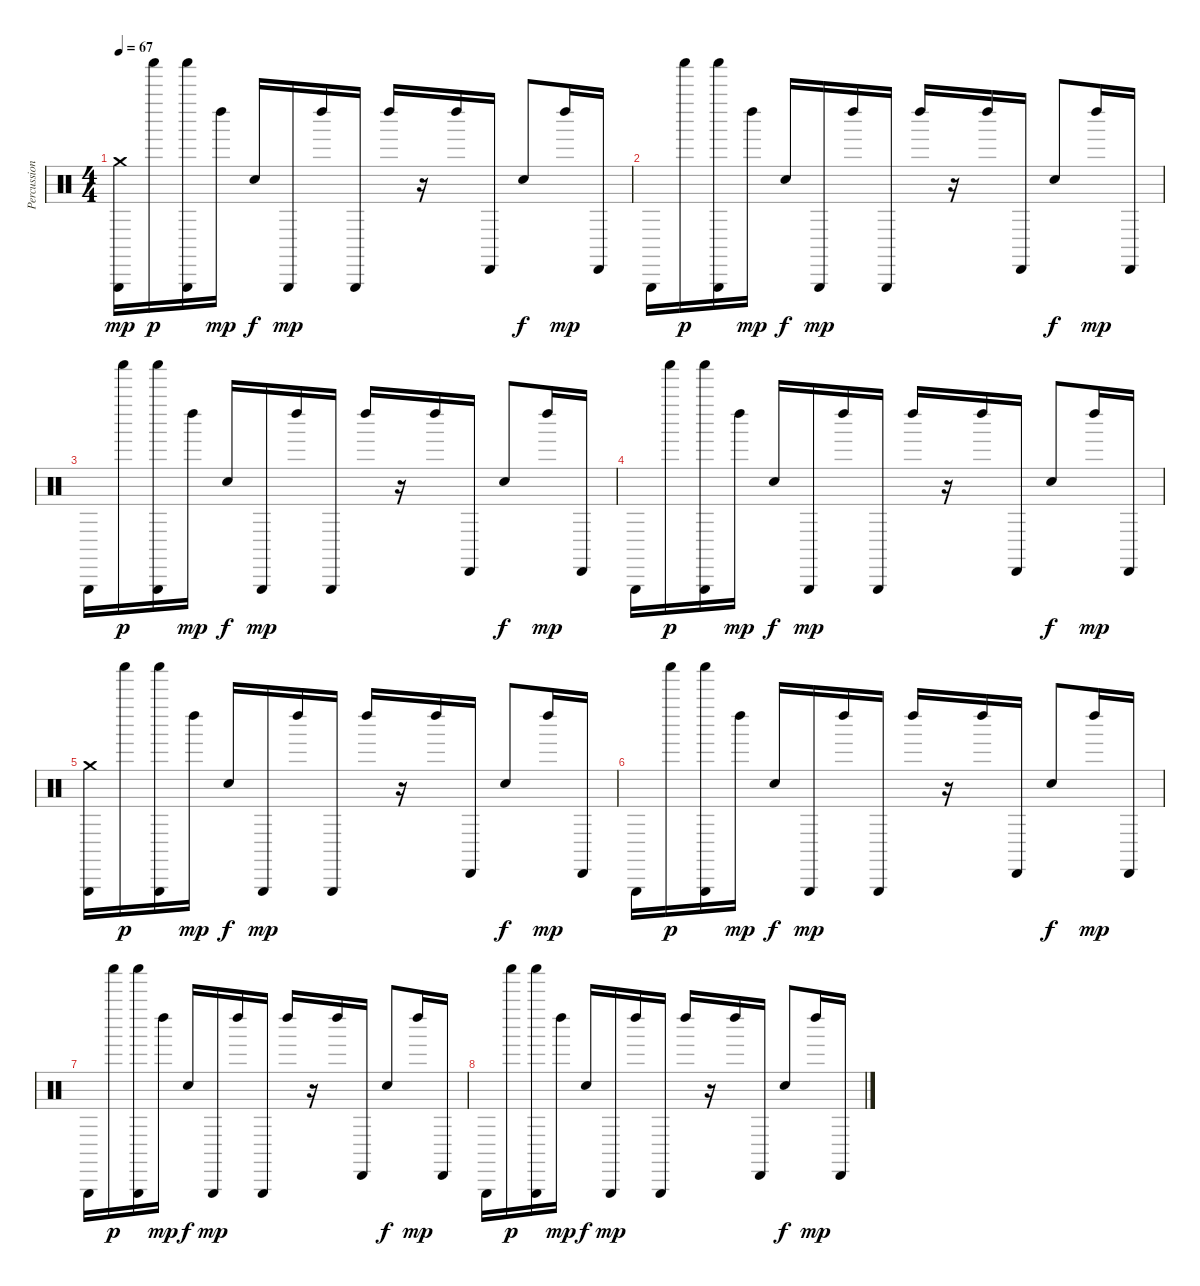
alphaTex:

\track ("Percussion" "Percussion") {instrument percussion}
\staff {score}
\articulation defaults
\ts (4 4)
\tempo 67
\clef neutral
\ks c
("Triangle (hit)" "Crash medium (hit)").16{dy mp} "Shaker (hit)".16{dy p} ("Triangle (hit)" "Shaker (hit)").16 "Left Maraca (hit)".16{dy mp} "Snare (hit) 2".16{dy f} "Triangle (hit)".16{dy mp} "Left Maraca (hit)".16 "Triangle (hit)".16 "Left Maraca (hit)".16 r.16 "Left Maraca (hit)".16 "Cabasa (hit)".16 "Snare (hit) 2".8{dy f} "Left Maraca (hit)".16{dy mp} "Cabasa (hit)".16 |
"Triangle (hit)".16 "Shaker (hit)".16{dy p} ("Triangle (hit)" "Shaker (hit)").16 "Left Maraca (hit)".16{dy mp} "Snare (hit) 2".16{dy f} "Triangle (hit)".16{dy mp} "Left Maraca (hit)".16 "Triangle (hit)".16 "Left Maraca (hit)".16 r.16 "Left Maraca (hit)".16 "Cabasa (hit)".16 "Snare (hit) 2".8{dy f} "Left Maraca (hit)".16{dy mp} "Cabasa (hit)".16 |
"Triangle (hit)".16 "Shaker (hit)".16{dy p} ("Triangle (hit)" "Shaker (hit)").16 "Left Maraca (hit)".16{dy mp} "Snare (hit) 2".16{dy f} "Triangle (hit)".16{dy mp} "Left Maraca (hit)".16 "Triangle (hit)".16 "Left Maraca (hit)".16 r.16 "Left Maraca (hit)".16 "Cabasa (hit)".16 "Snare (hit) 2".8{dy f} "Left Maraca (hit)".16{dy mp} "Cabasa (hit)".16 |
"Triangle (hit)".16 "Shaker (hit)".16{dy p} ("Triangle (hit)" "Shaker (hit)").16 "Left Maraca (hit)".16{dy mp} "Snare (hit) 2".16{dy f} "Triangle (hit)".16{dy mp} "Left Maraca (hit)".16 "Triangle (hit)".16 "Left Maraca (hit)".16 r.16 "Left Maraca (hit)".16 "Cabasa (hit)".16 "Snare (hit) 2".8{dy f} "Left Maraca (hit)".16{dy mp} "Cabasa (hit)".16 |
("Triangle (hit)" "Crash medium (hit)").16 "Shaker (hit)".16{dy p} ("Triangle (hit)" "Shaker (hit)").16 "Left Maraca (hit)".16{dy mp} "Snare (hit) 2".16{dy f} "Triangle (hit)".16{dy mp} "Left Maraca (hit)".16 "Triangle (hit)".16 "Left Maraca (hit)".16 r.16 "Left Maraca (hit)".16 "Cabasa (hit)".16 "Snare (hit) 2".8{dy f} "Left Maraca (hit)".16{dy mp} "Cabasa (hit)".16 |
"Triangle (hit)".16 "Shaker (hit)".16{dy p} ("Triangle (hit)" "Shaker (hit)").16 "Left Maraca (hit)".16{dy mp} "Snare (hit) 2".16{dy f} "Triangle (hit)".16{dy mp} "Left Maraca (hit)".16 "Triangle (hit)".16 "Left Maraca (hit)".16 r.16 "Left Maraca (hit)".16 "Cabasa (hit)".16 "Snare (hit) 2".8{dy f} "Left Maraca (hit)".16{dy mp} "Cabasa (hit)".16 |
"Triangle (hit)".16 "Shaker (hit)".16{dy p} ("Triangle (hit)" "Shaker (hit)").16 "Left Maraca (hit)".16{dy mp} "Snare (hit) 2".16{dy f} "Triangle (hit)".16{dy mp} "Left Maraca (hit)".16 "Triangle (hit)".16 "Left Maraca (hit)".16 r.16 "Left Maraca (hit)".16 "Cabasa (hit)".16 "Snare (hit) 2".8{dy f} "Left Maraca (hit)".16{dy mp} "Cabasa (hit)".16 |
"Triangle (hit)".16 "Shaker (hit)".16{dy p} ("Triangle (hit)" "Shaker (hit)").16 "Left Maraca (hit)".16{dy mp} "Snare (hit) 2".16{dy f} "Triangle (hit)".16{dy mp} "Left Maraca (hit)".16 "Triangle (hit)".16 "Left Maraca (hit)".16 r.16 "Left Maraca (hit)".16 "Cabasa (hit)".16 "Snare (hit) 2".8{dy f} "Left Maraca (hit)".16{dy mp} "Cabasa (hit)".16
